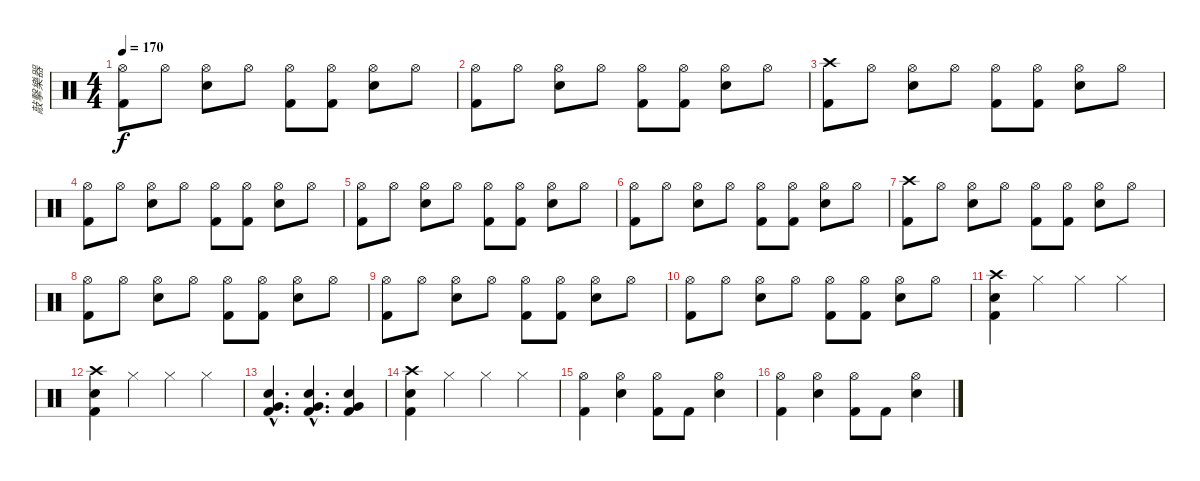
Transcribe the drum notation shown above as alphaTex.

\track ("敲擊樂器" "敲擊樂器") {instrument percussion}
\staff {score}
\articulation defaults
\ts (4 4)
\tempo 170
\clef neutral
\ks c
("Hi-Hat (open)" "Kick (hit) 2").8{dy f} "Hi-Hat (open)".8 ("Hi-Hat (open)" "Snare (hit) 2").8 "Hi-Hat (open)".8 ("Hi-Hat (open)" "Kick (hit) 2").8 ("Hi-Hat (open)" "Kick (hit) 2").8 ("Hi-Hat (open)" "Snare (hit) 2").8 "Hi-Hat (open)".8 |
("Hi-Hat (open)" "Kick (hit) 2").8 "Hi-Hat (open)".8 ("Hi-Hat (open)" "Snare (hit) 2").8 "Hi-Hat (open)".8 ("Hi-Hat (open)" "Kick (hit) 2").8 ("Hi-Hat (open)" "Kick (hit) 2").8 ("Hi-Hat (open)" "Snare (hit) 2").8 "Hi-Hat (open)".8 |
("Crash high (hit)" "Kick (hit) 2").8 "Hi-Hat (open)".8 ("Hi-Hat (open)" "Snare (hit) 2").8 "Hi-Hat (open)".8 ("Hi-Hat (open)" "Kick (hit) 2").8 ("Hi-Hat (open)" "Kick (hit) 2").8 ("Hi-Hat (open)" "Snare (hit) 2").8 "Hi-Hat (open)".8 |
("Hi-Hat (open)" "Kick (hit) 2").8 "Hi-Hat (open)".8 ("Hi-Hat (open)" "Snare (hit) 2").8 "Hi-Hat (open)".8 ("Hi-Hat (open)" "Kick (hit) 2").8 ("Hi-Hat (open)" "Kick (hit) 2").8 ("Hi-Hat (open)" "Snare (hit) 2").8 "Hi-Hat (open)".8 |
("Hi-Hat (open)" "Kick (hit) 2").8 "Hi-Hat (open)".8 ("Hi-Hat (open)" "Snare (hit) 2").8 "Hi-Hat (open)".8 ("Hi-Hat (open)" "Kick (hit) 2").8 ("Hi-Hat (open)" "Kick (hit) 2").8 ("Hi-Hat (open)" "Snare (hit) 2").8 "Hi-Hat (open)".8 |
("Hi-Hat (open)" "Kick (hit) 2").8 "Hi-Hat (open)".8 ("Hi-Hat (open)" "Snare (hit) 2").8 "Hi-Hat (open)".8 ("Hi-Hat (open)" "Kick (hit) 2").8 ("Hi-Hat (open)" "Kick (hit) 2").8 ("Hi-Hat (open)" "Snare (hit) 2").8 "Hi-Hat (open)".8 |
("Crash high (hit)" "Kick (hit) 2").8 "Hi-Hat (open)".8 ("Hi-Hat (open)" "Snare (hit) 2").8 "Hi-Hat (open)".8 ("Hi-Hat (open)" "Kick (hit) 2").8 ("Hi-Hat (open)" "Kick (hit) 2").8 ("Hi-Hat (open)" "Snare (hit) 2").8 "Hi-Hat (open)".8 |
("Hi-Hat (open)" "Kick (hit) 2").8 "Hi-Hat (open)".8 ("Hi-Hat (open)" "Snare (hit) 2").8 "Hi-Hat (open)".8 ("Hi-Hat (open)" "Kick (hit) 2").8 ("Hi-Hat (open)" "Kick (hit) 2").8 ("Hi-Hat (open)" "Snare (hit) 2").8 "Hi-Hat (open)".8 |
("Hi-Hat (open)" "Kick (hit) 2").8 "Hi-Hat (open)".8 ("Hi-Hat (open)" "Snare (hit) 2").8 "Hi-Hat (open)".8 ("Hi-Hat (open)" "Kick (hit) 2").8 ("Hi-Hat (open)" "Kick (hit) 2").8 ("Hi-Hat (open)" "Snare (hit) 2").8 "Hi-Hat (open)".8 |
("Hi-Hat (open)" "Kick (hit) 2").8 "Hi-Hat (open)".8 ("Hi-Hat (open)" "Snare (hit) 2").8 "Hi-Hat (open)".8 ("Hi-Hat (open)" "Kick (hit) 2").8 ("Hi-Hat (open)" "Kick (hit) 2").8 ("Hi-Hat (open)" "Snare (hit) 2").8 "Hi-Hat (open)".8 |
("Crash high (hit)" "Kick (hit) 2" "Snare (hit) 2").4 "Hi-Hat (closed)".4 "Hi-Hat (closed)".4 "Hi-Hat (closed)".4 |
("Crash high (hit)" "Kick (hit) 2" "Snare (hit) 2").4 "Hi-Hat (closed)".4 "Hi-Hat (closed)".4 "Hi-Hat (closed)".4 |
("Snare (hit) 2"{hac} "Very Low Tom (hit)"{hac} "Kick (hit) 2"{hac}).4{d} ("Snare (hit) 2"{hac} "Very Low Tom (hit)"{hac} "Kick (hit) 2"{hac}).4{d} ("Snare (hit) 2" "Very Low Tom (hit)" "Kick (hit) 2").4 |
("Crash high (hit)" "Snare (hit) 2" "Kick (hit) 2").4 "Hi-Hat (closed)".4 "Hi-Hat (closed)".4 "Hi-Hat (closed)".4 |
("Hi-Hat (open)" "Kick (hit) 2").4 ("Hi-Hat (open)" "Snare (hit) 2").4 ("Hi-Hat (open)" "Kick (hit) 2").8 "Kick (hit) 2".8 ("Hi-Hat (open)" "Snare (hit) 2").4 |
("Hi-Hat (open)" "Kick (hit) 2").4 ("Hi-Hat (open)" "Snare (hit) 2").4 ("Hi-Hat (open)" "Kick (hit) 2").8 "Kick (hit) 2".8 ("Hi-Hat (open)" "Snare (hit) 2").4
